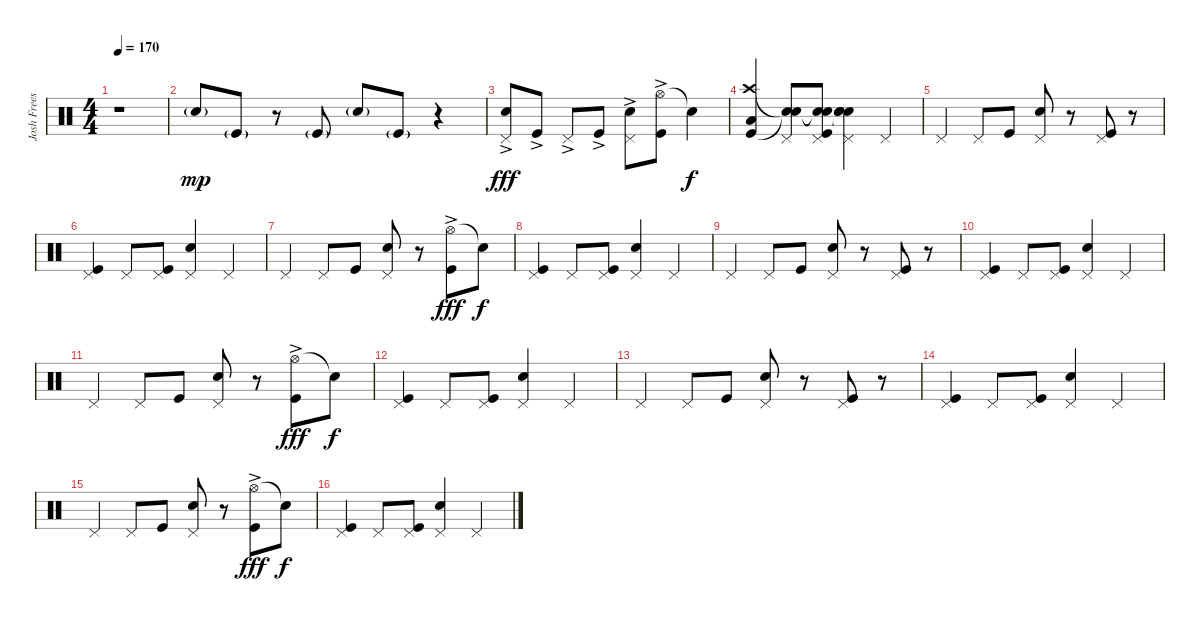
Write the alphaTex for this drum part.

\track ("Josh Freese - Drums" "Josh Frees") {instrument percussion}
\staff {score}
\articulation defaults
\ts (4 4)
\tempo 170
\clef neutral
\ks c
r.1{dy f} |
"Electric Snare (hit)"{g}.8{dy mp} "Kick (hit)"{g}.8 r.8 "Kick (hit)"{g}.8 "Electric Snare (hit)"{g}.8 "Kick (hit)"{g}.8 r.4 |
("Pedal Hi-Hat (hit)"{ac} "Electric Snare (hit)"{ac}).8{dy fff} "Kick (hit)"{ac}.8 "Pedal Hi-Hat (hit)"{ac}.8 "Kick (hit)"{ac}.8 ("Pedal Hi-Hat (hit)"{ac} "Electric Snare (hit)"{ac}).8 ("Hi-Hat (open)"{ac} "Kick (hit)"{ac}).8 "Snare (hit)"{t}.4{dy f} |
("Crash high (hit)" "Low Tom (hit)" "Kick (hit)").4 ("Snare (hit)"{t} "Pedal Hi-Hat (hit)" "Snare (hit)"{t}).8 ("Snare (hit)"{t} "Pedal Hi-Hat (hit)" "Snare (hit)"{t} "Kick (hit)").8 ("Snare (hit)"{t} "Pedal Hi-Hat (hit)" "Snare (hit)"{t} "Electric Snare (hit)").4 "Pedal Hi-Hat (hit)".4 |
"Pedal Hi-Hat (hit)".4 "Pedal Hi-Hat (hit)".8 "Kick (hit)".8 ("Pedal Hi-Hat (hit)" "Electric Snare (hit)").8 r.8 ("Pedal Hi-Hat (hit)" "Kick (hit)").8 r.8 |
("Pedal Hi-Hat (hit)" "Kick (hit)").4 "Pedal Hi-Hat (hit)".8 ("Pedal Hi-Hat (hit)" "Kick (hit)").8 ("Pedal Hi-Hat (hit)" "Electric Snare (hit)").4 "Pedal Hi-Hat (hit)".4 |
"Pedal Hi-Hat (hit)".4 "Pedal Hi-Hat (hit)".8 "Kick (hit)".8 ("Pedal Hi-Hat (hit)" "Electric Snare (hit)").8 r.8 ("Hi-Hat (open)"{ac} "Kick (hit)").8{dy fff} "Snare (hit)"{t}.8{dy f} |
("Pedal Hi-Hat (hit)" "Kick (hit)").4 "Pedal Hi-Hat (hit)".8 ("Pedal Hi-Hat (hit)" "Kick (hit)").8 ("Pedal Hi-Hat (hit)" "Electric Snare (hit)").4 "Pedal Hi-Hat (hit)".4 |
"Pedal Hi-Hat (hit)".4 "Pedal Hi-Hat (hit)".8 "Kick (hit)".8 ("Pedal Hi-Hat (hit)" "Electric Snare (hit)").8 r.8 ("Pedal Hi-Hat (hit)" "Kick (hit)").8 r.8 |
("Pedal Hi-Hat (hit)" "Kick (hit)").4 "Pedal Hi-Hat (hit)".8 ("Pedal Hi-Hat (hit)" "Kick (hit)").8 ("Pedal Hi-Hat (hit)" "Electric Snare (hit)").4 "Pedal Hi-Hat (hit)".4 |
"Pedal Hi-Hat (hit)".4 "Pedal Hi-Hat (hit)".8 "Kick (hit)".8 ("Pedal Hi-Hat (hit)" "Electric Snare (hit)").8 r.8 ("Hi-Hat (open)"{ac} "Kick (hit)").8{dy fff} "Snare (hit)"{t}.8{dy f} |
("Pedal Hi-Hat (hit)" "Kick (hit)").4 "Pedal Hi-Hat (hit)".8 ("Pedal Hi-Hat (hit)" "Kick (hit)").8 ("Pedal Hi-Hat (hit)" "Electric Snare (hit)").4 "Pedal Hi-Hat (hit)".4 |
"Pedal Hi-Hat (hit)".4 "Pedal Hi-Hat (hit)".8 "Kick (hit)".8 ("Pedal Hi-Hat (hit)" "Electric Snare (hit)").8 r.8 ("Pedal Hi-Hat (hit)" "Kick (hit)").8 r.8 |
("Pedal Hi-Hat (hit)" "Kick (hit)").4 "Pedal Hi-Hat (hit)".8 ("Pedal Hi-Hat (hit)" "Kick (hit)").8 ("Pedal Hi-Hat (hit)" "Electric Snare (hit)").4 "Pedal Hi-Hat (hit)".4 |
"Pedal Hi-Hat (hit)".4 "Pedal Hi-Hat (hit)".8 "Kick (hit)".8 ("Pedal Hi-Hat (hit)" "Electric Snare (hit)").8 r.8 ("Hi-Hat (open)"{ac} "Kick (hit)").8{dy fff} "Snare (hit)"{t}.8{dy f} |
("Pedal Hi-Hat (hit)" "Kick (hit)").4 "Pedal Hi-Hat (hit)".8 ("Pedal Hi-Hat (hit)" "Kick (hit)").8 ("Pedal Hi-Hat (hit)" "Electric Snare (hit)").4 "Pedal Hi-Hat (hit)".4
